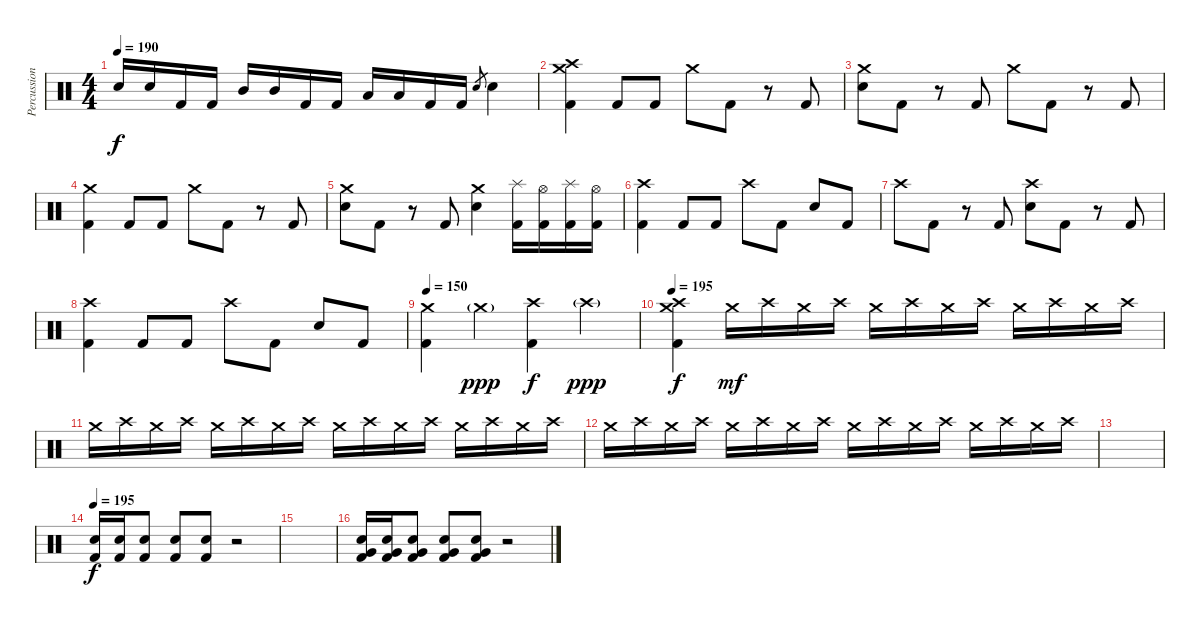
\track ("Percussion" "Percussion") {instrument percussion}
\staff {score}
\articulation defaults
\ts (4 4)
\tempo 190
\clef neutral
\ks c "Electric Snare (hit)".16{dy f} "Electric Snare (hit)".16 "Kick (hit) 2".16 "Kick (hit) 2".16 "Mid Tom (hit)".16 "Mid Tom (hit)".16 "Kick (hit) 2".16 "Kick (hit) 2".16 "Low Tom (hit)".16 "Low Tom (hit)".16 "Kick (hit) 2".16 "Kick (hit) 2".16 "Electric Snare (hit)".8{gr} "Electric Snare (hit)".4
|
("Crash medium (hit)" "Crash high (hit)" "Kick (hit) 2").4 "Kick (hit) 2".8 "Kick (hit) 2".8 "Crash medium (hit)".8 "Kick (hit) 2".8 r.8 "Kick (hit) 2".8 |
("Crash medium (hit)" "Electric Snare (hit)").8 "Kick (hit) 2".8 r.8 "Kick (hit) 2".8 "Crash medium (hit)".8 "Kick (hit) 2".8 r.8 "Kick (hit) 2".8 |
("Crash medium (hit)" "Kick (hit) 2").4 "Kick (hit) 2".8 "Kick (hit) 2".8 "Crash medium (hit)".8 "Kick (hit) 2".8 r.8 "Kick (hit) 2".8 |
("Crash medium (hit)" "Electric Snare (hit)").8 "Kick (hit) 2".8 r.8 "Kick (hit) 2".8 ("Crash medium (hit)" "Electric Snare (hit)").4 ("Splash (hit)" "Kick (hit) 2").16 ("Hi-Hat (open)" "Kick (hit) 2").16 ("Splash (hit)" "Kick (hit) 2").16 ("Hi-Hat (open)" "Kick (hit) 2").16 |
("Crash high (hit)" "Kick (hit) 2").4 "Kick (hit) 2".8 "Kick (hit) 2".8 "Crash high (hit)".8 "Kick (hit) 2".8 "Electric Snare (hit)".8 "Kick (hit) 2".8 |
"Crash high (hit)".8 "Kick (hit) 2".8 r.8 "Kick (hit) 2".8 ("Crash high (hit)" "Electric Snare (hit)").8 "Kick (hit) 2".8 r.8 "Kick (hit) 2".8 |
("Crash high (hit)" "Kick (hit) 2").4 "Kick (hit) 2".8 "Kick (hit) 2".8 "Crash high (hit)".8 "Kick (hit) 2".8 "Electric Snare (hit)".8 "Kick (hit) 2".8 |
\tempo 150
("Crash medium (hit)" "Kick (hit) 2").4 "Crash medium (hit)"{g}.4{dy ppp} ("Crash high (hit)" "Kick (hit) 2").4{dy f} "Crash high (hit)"{g}.4{dy ppp} |
\tempo 195
("Crash medium (hit)" "Crash high (hit)" "Kick (hit) 2").4{dy f} "Crash medium (hit)".16{dy mf volume 0} "Crash high (hit)".16 "Crash medium (hit)".16 "Crash high (hit)".16 "Crash medium (hit)".16 "Crash high (hit)".16 "Crash medium (hit)".16 "Crash high (hit)".16 "Crash medium (hit)".16 "Crash high (hit)".16 "Crash medium (hit)".16 "Crash high (hit)".16 |
"Crash medium (hit)".16 "Crash high (hit)".16 "Crash medium (hit)".16 "Crash high (hit)".16 "Crash medium (hit)".16 "Crash high (hit)".16 "Crash medium (hit)".16 "Crash high (hit)".16 "Crash medium (hit)".16 "Crash high (hit)".16 "Crash medium (hit)".16 "Crash high (hit)".16 "Crash medium (hit)".16 "Crash high (hit)".16 "Crash medium (hit)".16 "Crash high (hit)".16 |
"Crash medium (hit)".16 "Crash high (hit)".16 "Crash medium (hit)".16 "Crash high (hit)".16 "Crash medium (hit)".16 "Crash high (hit)".16 "Crash medium (hit)".16 "Crash high (hit)".16 "Crash medium (hit)".16 "Crash high (hit)".16 "Crash medium (hit)".16 "Crash high (hit)".16 "Crash medium (hit)".16 "Crash high (hit)".16 "Crash medium (hit)".16 "Crash high (hit)".16 |
|
\tempo 195
("Electric Snare (hit)" "Kick (hit) 2").16{dy f volume 16} ("Electric Snare (hit)" "Kick (hit) 2").16 ("Electric Snare (hit)" "Kick (hit) 2").8 ("Electric Snare (hit)" "Kick (hit) 2").8 ("Electric Snare (hit)" "Kick (hit) 2").8 r.2 |
|
("Very Low Tom (hit)" "Electric Snare (hit)" "Kick (hit) 2").16 ("Very Low Tom (hit)" "Electric Snare (hit)" "Kick (hit) 2").16 ("Very Low Tom (hit)" "Electric Snare (hit)" "Kick (hit) 2").8 ("Very Low Tom (hit)" "Electric Snare (hit)" "Kick (hit) 2").8 ("Very Low Tom (hit)" "Electric Snare (hit)" "Kick (hit) 2").8 r.2
